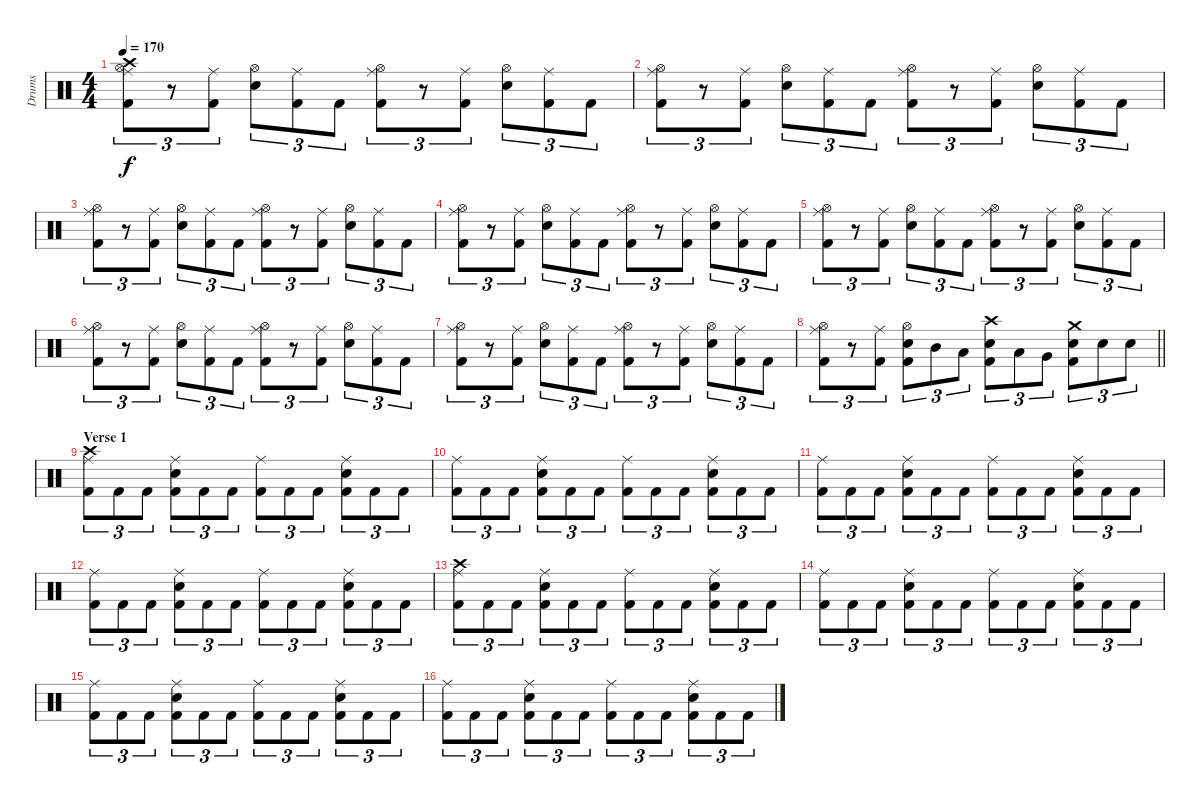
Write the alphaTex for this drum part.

\track ("Drums" "Drums") {instrument percussion}
\staff {score}
\articulation defaults
\ts (4 4)
\tempo 170
\clef neutral
\ks c
("Crash high (hit)" "Ride (middle)" "Hi-Hat (open)" "Kick (hit) 2").8{tu (3 2) dy f} r.8{tu (3 2)} ("Ride (middle)" "Kick (hit) 2").8{tu (3 2)} ("Hi-Hat (open)" "Snare (hit) 2").8{tu (3 2)} ("Ride (middle)" "Kick (hit) 2").8{tu (3 2)} "Kick (hit) 2".8{tu (3 2)} ("Ride (middle)" "Hi-Hat (open)" "Kick (hit) 2").8{tu (3 2)} r.8{tu (3 2)} ("Ride (middle)" "Kick (hit) 2").8{tu (3 2)} ("Hi-Hat (open)" "Snare (hit) 2").8{tu (3 2)} ("Ride (middle)" "Kick (hit) 2").8{tu (3 2)} "Kick (hit) 2".8{tu (3 2)} |
("Ride (middle)" "Hi-Hat (open)" "Kick (hit) 2").8{tu (3 2)} r.8{tu (3 2)} ("Ride (middle)" "Kick (hit) 2").8{tu (3 2)} ("Hi-Hat (open)" "Snare (hit) 2").8{tu (3 2)} ("Ride (middle)" "Kick (hit) 2").8{tu (3 2)} "Kick (hit) 2".8{tu (3 2)} ("Ride (middle)" "Hi-Hat (open)" "Kick (hit) 2").8{tu (3 2)} r.8{tu (3 2)} ("Ride (middle)" "Kick (hit) 2").8{tu (3 2)} ("Hi-Hat (open)" "Snare (hit) 2").8{tu (3 2)} ("Ride (middle)" "Kick (hit) 2").8{tu (3 2)} "Kick (hit) 2".8{tu (3 2)} |
("Ride (middle)" "Hi-Hat (open)" "Kick (hit) 2").8{tu (3 2)} r.8{tu (3 2)} ("Ride (middle)" "Kick (hit) 2").8{tu (3 2)} ("Hi-Hat (open)" "Snare (hit) 2").8{tu (3 2)} ("Ride (middle)" "Kick (hit) 2").8{tu (3 2)} "Kick (hit) 2".8{tu (3 2)} ("Ride (middle)" "Hi-Hat (open)" "Kick (hit) 2").8{tu (3 2)} r.8{tu (3 2)} ("Ride (middle)" "Kick (hit) 2").8{tu (3 2)} ("Hi-Hat (open)" "Snare (hit) 2").8{tu (3 2)} ("Ride (middle)" "Kick (hit) 2").8{tu (3 2)} "Kick (hit) 2".8{tu (3 2)} |
("Ride (middle)" "Hi-Hat (open)" "Kick (hit) 2").8{tu (3 2)} r.8{tu (3 2)} ("Ride (middle)" "Kick (hit) 2").8{tu (3 2)} ("Hi-Hat (open)" "Snare (hit) 2").8{tu (3 2)} ("Ride (middle)" "Kick (hit) 2").8{tu (3 2)} "Kick (hit) 2".8{tu (3 2)} ("Ride (middle)" "Hi-Hat (open)" "Kick (hit) 2").8{tu (3 2)} r.8{tu (3 2)} ("Ride (middle)" "Kick (hit) 2").8{tu (3 2)} ("Hi-Hat (open)" "Snare (hit) 2").8{tu (3 2)} ("Ride (middle)" "Kick (hit) 2").8{tu (3 2)} "Kick (hit) 2".8{tu (3 2)} |
("Ride (middle)" "Hi-Hat (open)" "Kick (hit) 2").8{tu (3 2)} r.8{tu (3 2)} ("Ride (middle)" "Kick (hit) 2").8{tu (3 2)} ("Hi-Hat (open)" "Snare (hit) 2").8{tu (3 2)} ("Ride (middle)" "Kick (hit) 2").8{tu (3 2)} "Kick (hit) 2".8{tu (3 2)} ("Ride (middle)" "Hi-Hat (open)" "Kick (hit) 2").8{tu (3 2)} r.8{tu (3 2)} ("Ride (middle)" "Kick (hit) 2").8{tu (3 2)} ("Hi-Hat (open)" "Snare (hit) 2").8{tu (3 2)} ("Ride (middle)" "Kick (hit) 2").8{tu (3 2)} "Kick (hit) 2".8{tu (3 2)} |
("Ride (middle)" "Hi-Hat (open)" "Kick (hit) 2").8{tu (3 2)} r.8{tu (3 2)} ("Ride (middle)" "Kick (hit) 2").8{tu (3 2)} ("Hi-Hat (open)" "Snare (hit) 2").8{tu (3 2)} ("Ride (middle)" "Kick (hit) 2").8{tu (3 2)} "Kick (hit) 2".8{tu (3 2)} ("Ride (middle)" "Hi-Hat (open)" "Kick (hit) 2").8{tu (3 2)} r.8{tu (3 2)} ("Ride (middle)" "Kick (hit) 2").8{tu (3 2)} ("Hi-Hat (open)" "Snare (hit) 2").8{tu (3 2)} ("Ride (middle)" "Kick (hit) 2").8{tu (3 2)} "Kick (hit) 2".8{tu (3 2)} |
("Ride (middle)" "Hi-Hat (open)" "Kick (hit) 2").8{tu (3 2)} r.8{tu (3 2)} ("Ride (middle)" "Kick (hit) 2").8{tu (3 2)} ("Hi-Hat (open)" "Snare (hit) 2").8{tu (3 2)} ("Ride (middle)" "Kick (hit) 2").8{tu (3 2)} "Kick (hit) 2".8{tu (3 2)} ("Ride (middle)" "Hi-Hat (open)" "Kick (hit) 2").8{tu (3 2)} r.8{tu (3 2)} ("Ride (middle)" "Kick (hit) 2").8{tu (3 2)} ("Hi-Hat (open)" "Snare (hit) 2").8{tu (3 2)} ("Ride (middle)" "Kick (hit) 2").8{tu (3 2)} "Kick (hit) 2".8{tu (3 2)} |
\barLineRight lightlight
("Ride (middle)" "Hi-Hat (open)" "Kick (hit) 2").8{tu (3 2)} r.8{tu (3 2)} ("Ride (middle)" "Kick (hit) 2").8{tu (3 2)} ("Hi-Hat (open)" "Snare (hit) 2" "Kick (hit) 2").8{tu (3 2)} "Mid Tom (hit)".8{tu (3 2)} "Low Tom (hit)".8{tu (3 2)} ("Crash high (hit)" "Snare (hit) 2" "Kick (hit) 2").8{tu (3 2)} "Low Tom (hit)".8{tu (3 2)} "Very Low Tom (hit)".8{tu (3 2)} ("Crash medium (hit)" "Snare (hit) 2" "Kick (hit) 2").8{tu (3 2)} "Snare (hit) 2".8{tu (3 2)} "Snare (hit) 2".8{tu (3 2)} |
\section ("" "Verse 1")
("Crash high (hit)" "Ride (middle)" "Kick (hit) 2").8{tu (3 2)} "Kick (hit) 2".8{tu (3 2)} "Kick (hit) 2".8{tu (3 2)} ("Ride (middle)" "Snare (hit) 2" "Kick (hit) 2").8{tu (3 2)} "Kick (hit) 2".8{tu (3 2)} "Kick (hit) 2".8{tu (3 2)} ("Ride (middle)" "Kick (hit) 2").8{tu (3 2)} "Kick (hit) 2".8{tu (3 2)} "Kick (hit) 2".8{tu (3 2)} ("Ride (middle)" "Snare (hit) 2" "Kick (hit) 2").8{tu (3 2)} "Kick (hit) 2".8{tu (3 2)} "Kick (hit) 2".8{tu (3 2)} |
("Ride (middle)" "Kick (hit) 2").8{tu (3 2)} "Kick (hit) 2".8{tu (3 2)} "Kick (hit) 2".8{tu (3 2)} ("Ride (middle)" "Snare (hit) 2" "Kick (hit) 2").8{tu (3 2)} "Kick (hit) 2".8{tu (3 2)} "Kick (hit) 2".8{tu (3 2)} ("Ride (middle)" "Kick (hit) 2").8{tu (3 2)} "Kick (hit) 2".8{tu (3 2)} "Kick (hit) 2".8{tu (3 2)} ("Ride (middle)" "Snare (hit) 2" "Kick (hit) 2").8{tu (3 2)} "Kick (hit) 2".8{tu (3 2)} "Kick (hit) 2".8{tu (3 2)} |
("Ride (middle)" "Kick (hit) 2").8{tu (3 2)} "Kick (hit) 2".8{tu (3 2)} "Kick (hit) 2".8{tu (3 2)} ("Ride (middle)" "Snare (hit) 2" "Kick (hit) 2").8{tu (3 2)} "Kick (hit) 2".8{tu (3 2)} "Kick (hit) 2".8{tu (3 2)} ("Ride (middle)" "Kick (hit) 2").8{tu (3 2)} "Kick (hit) 2".8{tu (3 2)} "Kick (hit) 2".8{tu (3 2)} ("Ride (middle)" "Snare (hit) 2" "Kick (hit) 2").8{tu (3 2)} "Kick (hit) 2".8{tu (3 2)} "Kick (hit) 2".8{tu (3 2)} |
("Ride (middle)" "Kick (hit) 2").8{tu (3 2)} "Kick (hit) 2".8{tu (3 2)} "Kick (hit) 2".8{tu (3 2)} ("Ride (middle)" "Snare (hit) 2" "Kick (hit) 2").8{tu (3 2)} "Kick (hit) 2".8{tu (3 2)} "Kick (hit) 2".8{tu (3 2)} ("Ride (middle)" "Kick (hit) 2").8{tu (3 2)} "Kick (hit) 2".8{tu (3 2)} "Kick (hit) 2".8{tu (3 2)} ("Ride (middle)" "Snare (hit) 2" "Kick (hit) 2").8{tu (3 2)} "Kick (hit) 2".8{tu (3 2)} "Kick (hit) 2".8{tu (3 2)} |
("Crash high (hit)" "Ride (middle)" "Kick (hit) 2").8{tu (3 2)} "Kick (hit) 2".8{tu (3 2)} "Kick (hit) 2".8{tu (3 2)} ("Ride (middle)" "Snare (hit) 2" "Kick (hit) 2").8{tu (3 2)} "Kick (hit) 2".8{tu (3 2)} "Kick (hit) 2".8{tu (3 2)} ("Ride (middle)" "Kick (hit) 2").8{tu (3 2)} "Kick (hit) 2".8{tu (3 2)} "Kick (hit) 2".8{tu (3 2)} ("Ride (middle)" "Snare (hit) 2" "Kick (hit) 2").8{tu (3 2)} "Kick (hit) 2".8{tu (3 2)} "Kick (hit) 2".8{tu (3 2)} |
("Ride (middle)" "Kick (hit) 2").8{tu (3 2)} "Kick (hit) 2".8{tu (3 2)} "Kick (hit) 2".8{tu (3 2)} ("Ride (middle)" "Snare (hit) 2" "Kick (hit) 2").8{tu (3 2)} "Kick (hit) 2".8{tu (3 2)} "Kick (hit) 2".8{tu (3 2)} ("Ride (middle)" "Kick (hit) 2").8{tu (3 2)} "Kick (hit) 2".8{tu (3 2)} "Kick (hit) 2".8{tu (3 2)} ("Ride (middle)" "Snare (hit) 2" "Kick (hit) 2").8{tu (3 2)} "Kick (hit) 2".8{tu (3 2)} "Kick (hit) 2".8{tu (3 2)} |
("Ride (middle)" "Kick (hit) 2").8{tu (3 2)} "Kick (hit) 2".8{tu (3 2)} "Kick (hit) 2".8{tu (3 2)} ("Ride (middle)" "Snare (hit) 2" "Kick (hit) 2").8{tu (3 2)} "Kick (hit) 2".8{tu (3 2)} "Kick (hit) 2".8{tu (3 2)} ("Ride (middle)" "Kick (hit) 2").8{tu (3 2)} "Kick (hit) 2".8{tu (3 2)} "Kick (hit) 2".8{tu (3 2)} ("Ride (middle)" "Snare (hit) 2" "Kick (hit) 2").8{tu (3 2)} "Kick (hit) 2".8{tu (3 2)} "Kick (hit) 2".8{tu (3 2)} |
("Ride (middle)" "Kick (hit) 2").8{tu (3 2)} "Kick (hit) 2".8{tu (3 2)} "Kick (hit) 2".8{tu (3 2)} ("Ride (middle)" "Snare (hit) 2" "Kick (hit) 2").8{tu (3 2)} "Kick (hit) 2".8{tu (3 2)} "Kick (hit) 2".8{tu (3 2)} ("Ride (middle)" "Kick (hit) 2").8{tu (3 2)} "Kick (hit) 2".8{tu (3 2)} "Kick (hit) 2".8{tu (3 2)} ("Ride (middle)" "Snare (hit) 2" "Kick (hit) 2").8{tu (3 2)} "Kick (hit) 2".8{tu (3 2)} "Kick (hit) 2".8{tu (3 2)}
